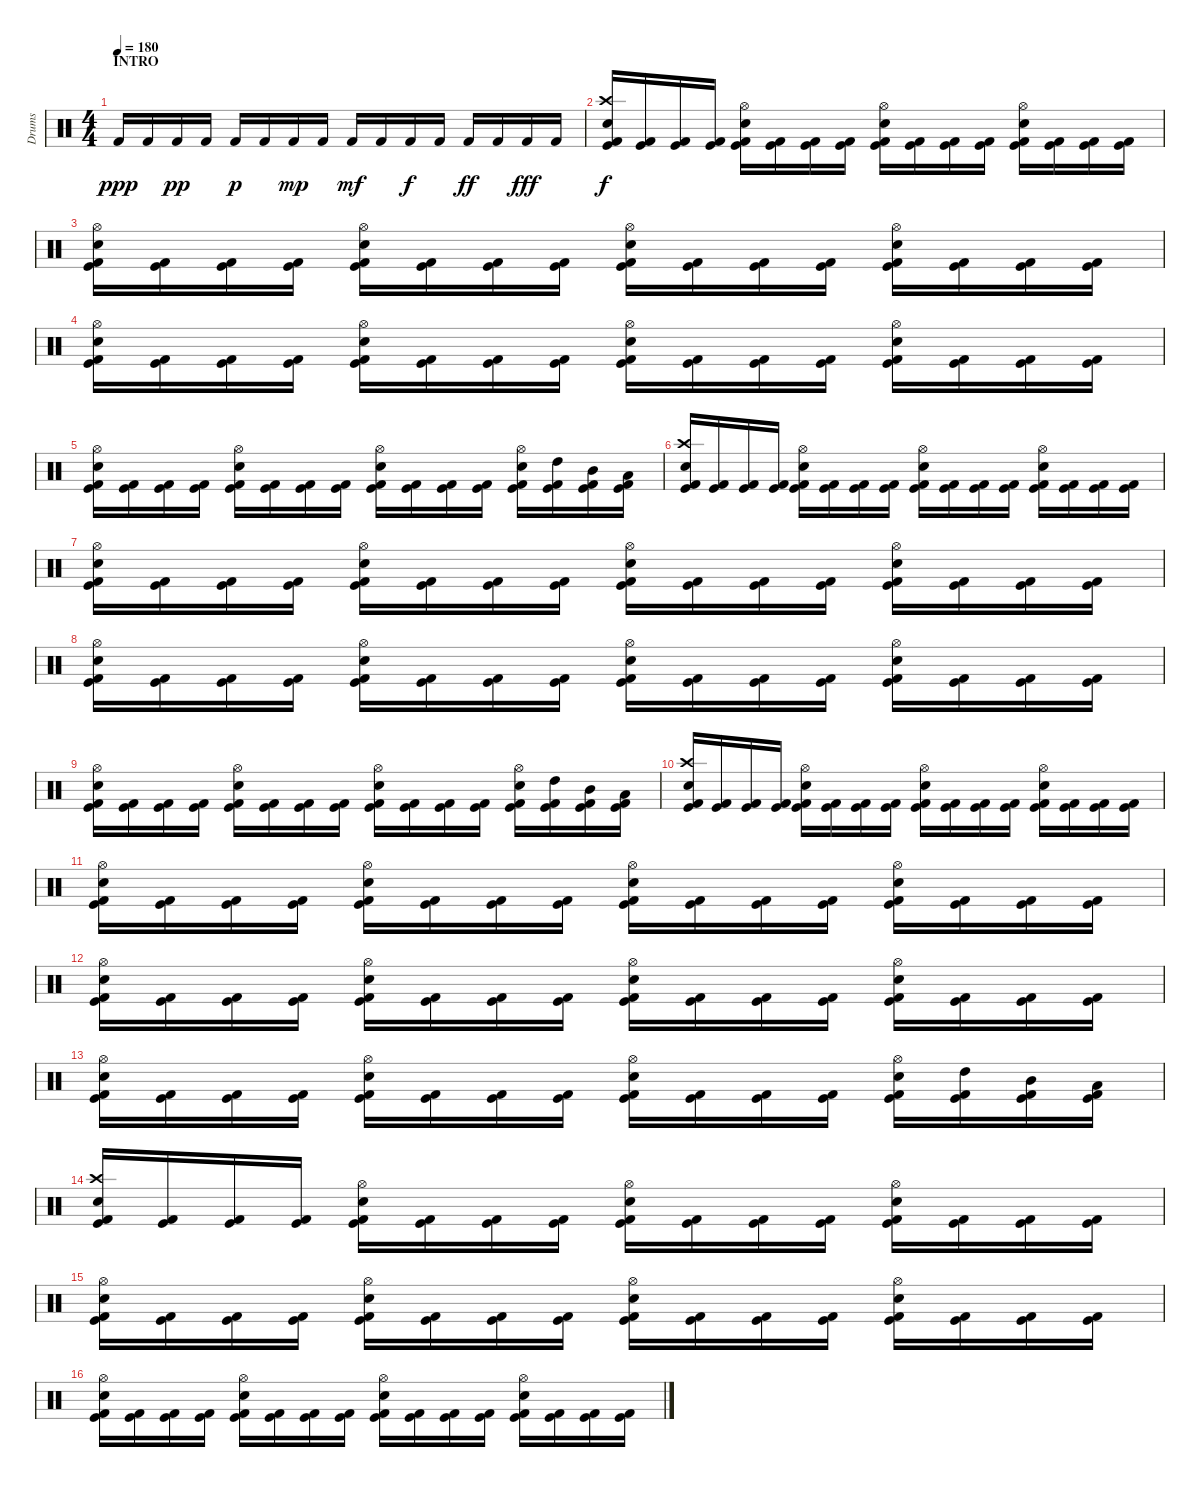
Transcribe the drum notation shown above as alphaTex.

\track ("Drums" "Drums") {instrument percussion}
\staff {score}
\articulation defaults
\ts (4 4)
\section ("" "INTRO")
\tempo 180
\clef neutral
\ks c "Kick (hit) 2".16{dy ppp} "Kick (hit) 2".16 "Kick (hit) 2".16{dy pp} "Kick (hit) 2".16 "Kick (hit) 2".16{dy p} "Kick (hit) 2".16 "Kick (hit) 2".16{dy mp} "Kick (hit) 2".16 "Kick (hit) 2".16{dy mf} "Kick (hit) 2".16 "Kick (hit) 2".16{dy f} "Kick (hit) 2".16 "Kick (hit) 2".16{dy ff} "Kick (hit) 2".16 "Kick (hit) 2".16{dy fff} "Kick (hit) 2".16
|
("Crash high (hit)" "Electric Snare (hit)" "Kick (hit)" "Kick (hit) 2").16{dy f} ("Kick (hit)" "Kick (hit) 2").16 ("Kick (hit)" "Kick (hit) 2").16 ("Kick (hit)" "Kick (hit) 2").16 ("Hi-Hat (open)" "Electric Snare (hit)" "Kick (hit)" "Kick (hit) 2").16 ("Kick (hit)" "Kick (hit) 2").16 ("Kick (hit)" "Kick (hit) 2").16 ("Kick (hit)" "Kick (hit) 2").16 ("Hi-Hat (open)" "Electric Snare (hit)" "Kick (hit)" "Kick (hit) 2").16 ("Kick (hit)" "Kick (hit) 2").16 ("Kick (hit)" "Kick (hit) 2").16 ("Kick (hit)" "Kick (hit) 2").16 ("Hi-Hat (open)" "Electric Snare (hit)" "Kick (hit)" "Kick (hit) 2").16 ("Kick (hit)" "Kick (hit) 2").16 ("Kick (hit)" "Kick (hit) 2").16 ("Kick (hit)" "Kick (hit) 2").16 |
("Hi-Hat (open)" "Electric Snare (hit)" "Kick (hit)" "Kick (hit) 2").16 ("Kick (hit)" "Kick (hit) 2").16 ("Kick (hit)" "Kick (hit) 2").16 ("Kick (hit)" "Kick (hit) 2").16 ("Hi-Hat (open)" "Electric Snare (hit)" "Kick (hit)" "Kick (hit) 2").16 ("Kick (hit)" "Kick (hit) 2").16 ("Kick (hit)" "Kick (hit) 2").16 ("Kick (hit)" "Kick (hit) 2").16 ("Hi-Hat (open)" "Electric Snare (hit)" "Kick (hit)" "Kick (hit) 2").16 ("Kick (hit)" "Kick (hit) 2").16 ("Kick (hit)" "Kick (hit) 2").16 ("Kick (hit)" "Kick (hit) 2").16 ("Hi-Hat (open)" "Electric Snare (hit)" "Kick (hit)" "Kick (hit) 2").16 ("Kick (hit)" "Kick (hit) 2").16 ("Kick (hit)" "Kick (hit) 2").16 ("Kick (hit)" "Kick (hit) 2").16 |
("Hi-Hat (open)" "Electric Snare (hit)" "Kick (hit)" "Kick (hit) 2").16 ("Kick (hit)" "Kick (hit) 2").16 ("Kick (hit)" "Kick (hit) 2").16 ("Kick (hit)" "Kick (hit) 2").16 ("Hi-Hat (open)" "Electric Snare (hit)" "Kick (hit)" "Kick (hit) 2").16 ("Kick (hit)" "Kick (hit) 2").16 ("Kick (hit)" "Kick (hit) 2").16 ("Kick (hit)" "Kick (hit) 2").16 ("Hi-Hat (open)" "Electric Snare (hit)" "Kick (hit)" "Kick (hit) 2").16 ("Kick (hit)" "Kick (hit) 2").16 ("Kick (hit)" "Kick (hit) 2").16 ("Kick (hit)" "Kick (hit) 2").16 ("Hi-Hat (open)" "Electric Snare (hit)" "Kick (hit)" "Kick (hit) 2").16 ("Kick (hit)" "Kick (hit) 2").16 ("Kick (hit)" "Kick (hit) 2").16 ("Kick (hit)" "Kick (hit) 2").16 |
("Hi-Hat (open)" "Electric Snare (hit)" "Kick (hit)" "Kick (hit) 2").16 ("Kick (hit)" "Kick (hit) 2").16 ("Kick (hit)" "Kick (hit) 2").16 ("Kick (hit)" "Kick (hit) 2").16 ("Hi-Hat (open)" "Electric Snare (hit)" "Kick (hit)" "Kick (hit) 2").16 ("Kick (hit)" "Kick (hit) 2").16 ("Kick (hit)" "Kick (hit) 2").16 ("Kick (hit)" "Kick (hit) 2").16 ("Hi-Hat (open)" "Electric Snare (hit)" "Kick (hit)" "Kick (hit) 2").16 ("Kick (hit)" "Kick (hit) 2").16 ("Kick (hit)" "Kick (hit) 2").16 ("Kick (hit)" "Kick (hit) 2").16 ("Hi-Hat (open)" "Electric Snare (hit)" "Kick (hit)" "Kick (hit) 2").16 ("High Tom (hit)" "Kick (hit)" "Kick (hit) 2").16 ("Mid Tom (hit)" "Kick (hit)" "Kick (hit) 2").16 ("Low Tom (hit)" "Kick (hit)" "Kick (hit) 2").16 |
("Crash high (hit)" "Electric Snare (hit)" "Kick (hit)" "Kick (hit) 2").16 ("Kick (hit)" "Kick (hit) 2").16 ("Kick (hit)" "Kick (hit) 2").16 ("Kick (hit)" "Kick (hit) 2").16 ("Hi-Hat (open)" "Electric Snare (hit)" "Kick (hit)" "Kick (hit) 2").16 ("Kick (hit)" "Kick (hit) 2").16 ("Kick (hit)" "Kick (hit) 2").16 ("Kick (hit)" "Kick (hit) 2").16 ("Hi-Hat (open)" "Electric Snare (hit)" "Kick (hit)" "Kick (hit) 2").16 ("Kick (hit)" "Kick (hit) 2").16 ("Kick (hit)" "Kick (hit) 2").16 ("Kick (hit)" "Kick (hit) 2").16 ("Hi-Hat (open)" "Electric Snare (hit)" "Kick (hit)" "Kick (hit) 2").16 ("Kick (hit)" "Kick (hit) 2").16 ("Kick (hit)" "Kick (hit) 2").16 ("Kick (hit)" "Kick (hit) 2").16 |
("Hi-Hat (open)" "Electric Snare (hit)" "Kick (hit)" "Kick (hit) 2").16 ("Kick (hit)" "Kick (hit) 2").16 ("Kick (hit)" "Kick (hit) 2").16 ("Kick (hit)" "Kick (hit) 2").16 ("Hi-Hat (open)" "Electric Snare (hit)" "Kick (hit)" "Kick (hit) 2").16 ("Kick (hit)" "Kick (hit) 2").16 ("Kick (hit)" "Kick (hit) 2").16 ("Kick (hit)" "Kick (hit) 2").16 ("Hi-Hat (open)" "Electric Snare (hit)" "Kick (hit)" "Kick (hit) 2").16 ("Kick (hit)" "Kick (hit) 2").16 ("Kick (hit)" "Kick (hit) 2").16 ("Kick (hit)" "Kick (hit) 2").16 ("Hi-Hat (open)" "Electric Snare (hit)" "Kick (hit)" "Kick (hit) 2").16 ("Kick (hit)" "Kick (hit) 2").16 ("Kick (hit)" "Kick (hit) 2").16 ("Kick (hit)" "Kick (hit) 2").16 |
("Hi-Hat (open)" "Electric Snare (hit)" "Kick (hit)" "Kick (hit) 2").16 ("Kick (hit)" "Kick (hit) 2").16 ("Kick (hit)" "Kick (hit) 2").16 ("Kick (hit)" "Kick (hit) 2").16 ("Hi-Hat (open)" "Electric Snare (hit)" "Kick (hit)" "Kick (hit) 2").16 ("Kick (hit)" "Kick (hit) 2").16 ("Kick (hit)" "Kick (hit) 2").16 ("Kick (hit)" "Kick (hit) 2").16 ("Hi-Hat (open)" "Electric Snare (hit)" "Kick (hit)" "Kick (hit) 2").16 ("Kick (hit)" "Kick (hit) 2").16 ("Kick (hit)" "Kick (hit) 2").16 ("Kick (hit)" "Kick (hit) 2").16 ("Hi-Hat (open)" "Electric Snare (hit)" "Kick (hit)" "Kick (hit) 2").16 ("Kick (hit)" "Kick (hit) 2").16 ("Kick (hit)" "Kick (hit) 2").16 ("Kick (hit)" "Kick (hit) 2").16 |
("Hi-Hat (open)" "Electric Snare (hit)" "Kick (hit)" "Kick (hit) 2").16 ("Kick (hit)" "Kick (hit) 2").16 ("Kick (hit)" "Kick (hit) 2").16 ("Kick (hit)" "Kick (hit) 2").16 ("Hi-Hat (open)" "Electric Snare (hit)" "Kick (hit)" "Kick (hit) 2").16 ("Kick (hit)" "Kick (hit) 2").16 ("Kick (hit)" "Kick (hit) 2").16 ("Kick (hit)" "Kick (hit) 2").16 ("Hi-Hat (open)" "Electric Snare (hit)" "Kick (hit)" "Kick (hit) 2").16 ("Kick (hit)" "Kick (hit) 2").16 ("Kick (hit)" "Kick (hit) 2").16 ("Kick (hit)" "Kick (hit) 2").16 ("Hi-Hat (open)" "Electric Snare (hit)" "Kick (hit)" "Kick (hit) 2").16 ("High Tom (hit)" "Kick (hit)" "Kick (hit) 2").16 ("Mid Tom (hit)" "Kick (hit)" "Kick (hit) 2").16 ("Low Tom (hit)" "Kick (hit)" "Kick (hit) 2").16 |
("Crash high (hit)" "Electric Snare (hit)" "Kick (hit)" "Kick (hit) 2").16 ("Kick (hit)" "Kick (hit) 2").16 ("Kick (hit)" "Kick (hit) 2").16 ("Kick (hit)" "Kick (hit) 2").16 ("Hi-Hat (open)" "Electric Snare (hit)" "Kick (hit)" "Kick (hit) 2").16 ("Kick (hit)" "Kick (hit) 2").16 ("Kick (hit)" "Kick (hit) 2").16 ("Kick (hit)" "Kick (hit) 2").16 ("Hi-Hat (open)" "Electric Snare (hit)" "Kick (hit)" "Kick (hit) 2").16 ("Kick (hit)" "Kick (hit) 2").16 ("Kick (hit)" "Kick (hit) 2").16 ("Kick (hit)" "Kick (hit) 2").16 ("Hi-Hat (open)" "Electric Snare (hit)" "Kick (hit)" "Kick (hit) 2").16 ("Kick (hit)" "Kick (hit) 2").16 ("Kick (hit)" "Kick (hit) 2").16 ("Kick (hit)" "Kick (hit) 2").16 |
("Hi-Hat (open)" "Electric Snare (hit)" "Kick (hit)" "Kick (hit) 2").16 ("Kick (hit)" "Kick (hit) 2").16 ("Kick (hit)" "Kick (hit) 2").16 ("Kick (hit)" "Kick (hit) 2").16 ("Hi-Hat (open)" "Electric Snare (hit)" "Kick (hit)" "Kick (hit) 2").16 ("Kick (hit)" "Kick (hit) 2").16 ("Kick (hit)" "Kick (hit) 2").16 ("Kick (hit)" "Kick (hit) 2").16 ("Hi-Hat (open)" "Electric Snare (hit)" "Kick (hit)" "Kick (hit) 2").16 ("Kick (hit)" "Kick (hit) 2").16 ("Kick (hit)" "Kick (hit) 2").16 ("Kick (hit)" "Kick (hit) 2").16 ("Hi-Hat (open)" "Electric Snare (hit)" "Kick (hit)" "Kick (hit) 2").16 ("Kick (hit)" "Kick (hit) 2").16 ("Kick (hit)" "Kick (hit) 2").16 ("Kick (hit)" "Kick (hit) 2").16 |
("Hi-Hat (open)" "Electric Snare (hit)" "Kick (hit)" "Kick (hit) 2").16 ("Kick (hit)" "Kick (hit) 2").16 ("Kick (hit)" "Kick (hit) 2").16 ("Kick (hit)" "Kick (hit) 2").16 ("Hi-Hat (open)" "Electric Snare (hit)" "Kick (hit)" "Kick (hit) 2").16 ("Kick (hit)" "Kick (hit) 2").16 ("Kick (hit)" "Kick (hit) 2").16 ("Kick (hit)" "Kick (hit) 2").16 ("Hi-Hat (open)" "Electric Snare (hit)" "Kick (hit)" "Kick (hit) 2").16 ("Kick (hit)" "Kick (hit) 2").16 ("Kick (hit)" "Kick (hit) 2").16 ("Kick (hit)" "Kick (hit) 2").16 ("Hi-Hat (open)" "Electric Snare (hit)" "Kick (hit)" "Kick (hit) 2").16 ("Kick (hit)" "Kick (hit) 2").16 ("Kick (hit)" "Kick (hit) 2").16 ("Kick (hit)" "Kick (hit) 2").16 |
("Hi-Hat (open)" "Electric Snare (hit)" "Kick (hit)" "Kick (hit) 2").16 ("Kick (hit)" "Kick (hit) 2").16 ("Kick (hit)" "Kick (hit) 2").16 ("Kick (hit)" "Kick (hit) 2").16 ("Hi-Hat (open)" "Electric Snare (hit)" "Kick (hit)" "Kick (hit) 2").16 ("Kick (hit)" "Kick (hit) 2").16 ("Kick (hit)" "Kick (hit) 2").16 ("Kick (hit)" "Kick (hit) 2").16 ("Hi-Hat (open)" "Electric Snare (hit)" "Kick (hit)" "Kick (hit) 2").16 ("Kick (hit)" "Kick (hit) 2").16 ("Kick (hit)" "Kick (hit) 2").16 ("Kick (hit)" "Kick (hit) 2").16 ("Hi-Hat (open)" "Electric Snare (hit)" "Kick (hit)" "Kick (hit) 2").16 ("High Tom (hit)" "Kick (hit)" "Kick (hit) 2").16 ("Mid Tom (hit)" "Kick (hit)" "Kick (hit) 2").16 ("Low Tom (hit)" "Kick (hit)" "Kick (hit) 2").16 |
("Crash high (hit)" "Electric Snare (hit)" "Kick (hit)" "Kick (hit) 2").16 ("Kick (hit)" "Kick (hit) 2").16 ("Kick (hit)" "Kick (hit) 2").16 ("Kick (hit)" "Kick (hit) 2").16 ("Hi-Hat (open)" "Electric Snare (hit)" "Kick (hit)" "Kick (hit) 2").16 ("Kick (hit)" "Kick (hit) 2").16 ("Kick (hit)" "Kick (hit) 2").16 ("Kick (hit)" "Kick (hit) 2").16 ("Hi-Hat (open)" "Electric Snare (hit)" "Kick (hit)" "Kick (hit) 2").16 ("Kick (hit)" "Kick (hit) 2").16 ("Kick (hit)" "Kick (hit) 2").16 ("Kick (hit)" "Kick (hit) 2").16 ("Hi-Hat (open)" "Electric Snare (hit)" "Kick (hit)" "Kick (hit) 2").16 ("Kick (hit)" "Kick (hit) 2").16 ("Kick (hit)" "Kick (hit) 2").16 ("Kick (hit)" "Kick (hit) 2").16 |
("Hi-Hat (open)" "Electric Snare (hit)" "Kick (hit)" "Kick (hit) 2").16 ("Kick (hit)" "Kick (hit) 2").16 ("Kick (hit)" "Kick (hit) 2").16 ("Kick (hit)" "Kick (hit) 2").16 ("Hi-Hat (open)" "Electric Snare (hit)" "Kick (hit)" "Kick (hit) 2").16 ("Kick (hit)" "Kick (hit) 2").16 ("Kick (hit)" "Kick (hit) 2").16 ("Kick (hit)" "Kick (hit) 2").16 ("Hi-Hat (open)" "Electric Snare (hit)" "Kick (hit)" "Kick (hit) 2").16 ("Kick (hit)" "Kick (hit) 2").16 ("Kick (hit)" "Kick (hit) 2").16 ("Kick (hit)" "Kick (hit) 2").16 ("Hi-Hat (open)" "Electric Snare (hit)" "Kick (hit)" "Kick (hit) 2").16 ("Kick (hit)" "Kick (hit) 2").16 ("Kick (hit)" "Kick (hit) 2").16 ("Kick (hit)" "Kick (hit) 2").16 |
("Hi-Hat (open)" "Electric Snare (hit)" "Kick (hit)" "Kick (hit) 2").16 ("Kick (hit)" "Kick (hit) 2").16 ("Kick (hit)" "Kick (hit) 2").16 ("Kick (hit)" "Kick (hit) 2").16 ("Hi-Hat (open)" "Electric Snare (hit)" "Kick (hit)" "Kick (hit) 2").16 ("Kick (hit)" "Kick (hit) 2").16 ("Kick (hit)" "Kick (hit) 2").16 ("Kick (hit)" "Kick (hit) 2").16 ("Hi-Hat (open)" "Electric Snare (hit)" "Kick (hit)" "Kick (hit) 2").16 ("Kick (hit)" "Kick (hit) 2").16 ("Kick (hit)" "Kick (hit) 2").16 ("Kick (hit)" "Kick (hit) 2").16 ("Hi-Hat (open)" "Electric Snare (hit)" "Kick (hit)" "Kick (hit) 2").16 ("Kick (hit)" "Kick (hit) 2").16 ("Kick (hit)" "Kick (hit) 2").16 ("Kick (hit)" "Kick (hit) 2").16
